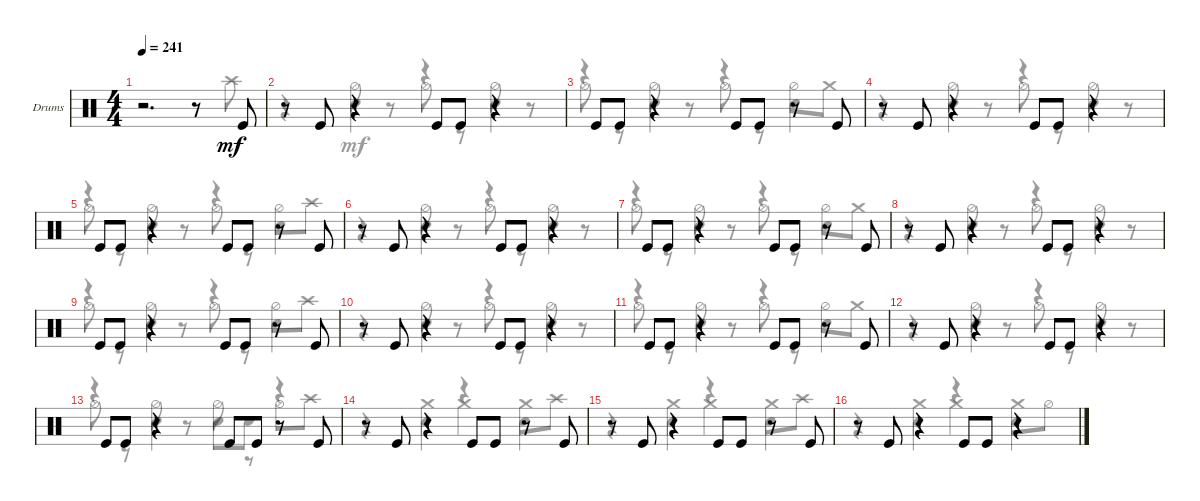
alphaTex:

\defaultSystemsLayout 4
\bracketExtendMode groupsimilarinstruments
\firstSystemTrackNameOrientation horizontal
\otherSystemsTrackNameOrientation horizontal
\track ("Drumkit" "Drums") {instrument percussion}
\staff {score}
\articulation defaults
\voice
\ts (4 4)
\tempo 241
\clef neutral
\ks c
r.2{d dy mf} r.8 "Kick (hit)".8 |
r.8 "Kick (hit)".8 r.4 "Kick (hit)".8 "Kick (hit)".8 r.4 |
"Kick (hit)".8 "Kick (hit)".8 r.4 "Kick (hit)".8 "Kick (hit)".8 r.8 "Kick (hit)".8 |
r.8 "Kick (hit)".8 r.4 "Kick (hit)".8 "Kick (hit)".8 r.4 |
"Kick (hit)".8 "Kick (hit)".8 r.4 "Kick (hit)".8 "Kick (hit)".8 r.8 "Kick (hit)".8 |
r.8 "Kick (hit)".8 r.4 "Kick (hit)".8 "Kick (hit)".8 r.4 |
"Kick (hit)".8 "Kick (hit)".8 r.4 "Kick (hit)".8 "Kick (hit)".8 r.8 "Kick (hit)".8 |
r.8 "Kick (hit)".8 r.4 "Kick (hit)".8 "Kick (hit)".8 r.4 |
"Kick (hit)".8 "Kick (hit)".8 r.4 "Kick (hit)".8 "Kick (hit)".8 r.8 "Kick (hit)".8 |
r.8 "Kick (hit)".8 r.4 "Kick (hit)".8 "Kick (hit)".8 r.4 |
"Kick (hit)".8 "Kick (hit)".8 r.4 "Kick (hit)".8 "Kick (hit)".8 r.8 "Kick (hit)".8 |
r.8 "Kick (hit)".8 r.4 "Kick (hit)".8 "Kick (hit)".8 r.4 |
"Kick (hit)".8 "Kick (hit)".8 r.4 "Kick (hit)".8 "Kick (hit)".8 r.8 "Kick (hit)".8 |
r.8 "Kick (hit)".8 r.4 "Kick (hit)".8 "Kick (hit)".8 r.8 "Kick (hit)".8 |
r.8 "Kick (hit)".8 r.4 "Kick (hit)".8 "Kick (hit)".8 r.8 "Kick (hit)".8 |
r.8 "Kick (hit)".8 r.4 "Kick (hit)".8 "Kick (hit)".8 r.4
\voice
\clef neutral
\ottava regular
\simile none
\ks c
r.2{d dy mf} r.8 "Crash high (hit)".8 |
r.4 "Snare (hit) 2".4 r.4 "Snare (hit) 2".4 |
r.4 "Snare (hit) 2".4 r.4 "Snare (hit) 2".4 |
r.4 "Snare (hit) 2".4 r.4 "Snare (hit) 2".4 |
r.4 "Snare (hit) 2".4 r.4 "Snare (hit) 2".4 |
r.4 "Snare (hit) 2".4 r.4 "Snare (hit) 2".4 |
r.4 "Snare (hit) 2".4 r.4 "Snare (hit) 2".4 |
r.4 "Snare (hit) 2".4 r.4 "Snare (hit) 2".4 |
r.4 "Snare (hit) 2".4 r.4 "Snare (hit) 2".4 |
r.4 "Snare (hit) 2".4 r.4 "Snare (hit) 2".4 |
r.4 "Snare (hit) 2".4 r.4 "Snare (hit) 2".4 |
r.4 "Snare (hit) 2".4 r.4 "Snare (hit) 2".4 |
r.4 "Snare (hit) 2".4 "Snare (hit) 2".8 "Snare (hit) 2".8 r.4 |
r.4 "Snare (hit) 2".4 r.4 "Snare (hit) 2".4 |
r.4 "Snare (hit) 2".4 r.4 "Snare (hit) 2".4 |
r.4 "Snare (hit) 2".4 r.4 "Snare (hit) 2".4
\voice
\clef neutral
\ottava regular
\simile none
\ks c
|
r.4 "Hi-Hat (half)".8 r.8 "Hi-Hat (half)".8 r.8 "Hi-Hat (half)".8 r.8 |
"Hi-Hat (half)".8 r.8 "Hi-Hat (half)".8 r.8 "Hi-Hat (half)".8 r.8 "Hi-Hat (half)".8 "Crash medium (hit)".8 |
r.4 "Hi-Hat (half)".8 r.8 "Hi-Hat (half)".8 r.8 "Hi-Hat (half)".8 r.8 |
"Hi-Hat (half)".8 r.8 "Hi-Hat (half)".8 r.8 "Hi-Hat (half)".8 r.8 "Hi-Hat (half)".8 "Crash high (hit)".8 |
r.4 "Hi-Hat (half)".8 r.8 "Hi-Hat (half)".8 r.8 "Hi-Hat (half)".8 r.8 |
"Hi-Hat (half)".8 r.8 "Hi-Hat (half)".8 r.8 "Hi-Hat (half)".8 r.8 "Hi-Hat (half)".8 "Crash medium (hit)".8 |
r.4 "Hi-Hat (half)".8 r.8 "Hi-Hat (half)".8 r.8 "Hi-Hat (half)".8 r.8 |
"Hi-Hat (half)".8 r.8 "Hi-Hat (half)".8 r.8 "Hi-Hat (half)".8 r.8 "Hi-Hat (half)".8 "Crash high (hit)".8 |
r.4 "Hi-Hat (half)".8 r.8 "Hi-Hat (half)".8 r.8 "Hi-Hat (half)".8 r.8 |
"Hi-Hat (half)".8 r.8 "Hi-Hat (half)".8 r.8 "Hi-Hat (half)".8 r.8 "Hi-Hat (half)".8 "Crash medium (hit)".8 |
r.4 "Hi-Hat (half)".8 r.8 "Hi-Hat (half)".8 r.8 "Hi-Hat (half)".8 r.8 |
"Hi-Hat (half)".8 r.8 "Hi-Hat (half)".8 r.8 "Hi-Hat (half)".8 r.8 "Hi-Hat (half)".8 "Crash high (hit)".8 |
r.4 "Crash medium (hit)".4 "Crash medium (hit)".4 "Crash medium (hit)".8 "Crash high (hit)".8 |
r.4 "Crash medium (hit)".4 "Crash medium (hit)".4 "Crash medium (hit)".8 "Crash high (hit)".8 |
r.4 "Crash medium (hit)".4 "Crash medium (hit)".4 "Crash medium (hit)".8 "Hi-Hat (half)".8
